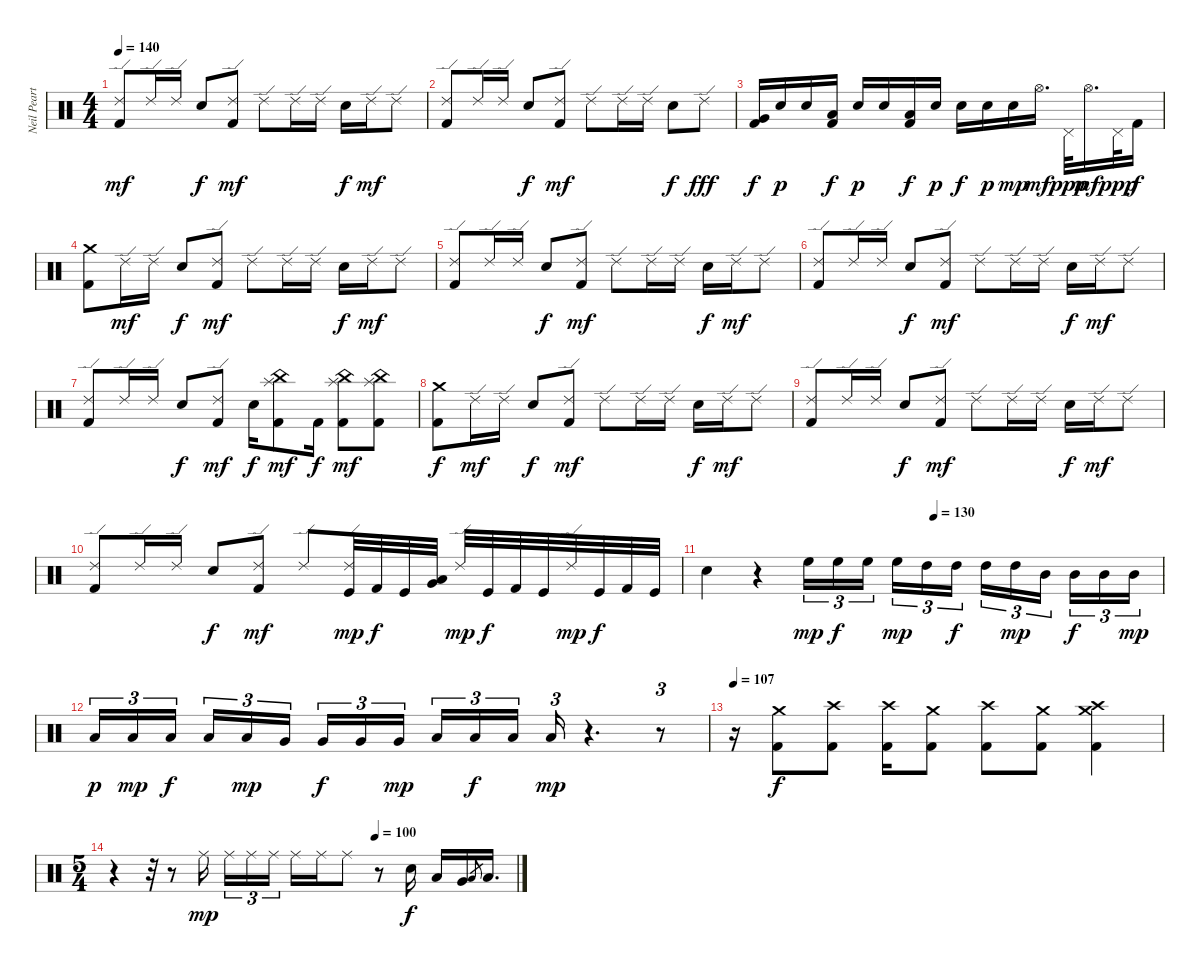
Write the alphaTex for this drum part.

\track ("Neil Peart, Percusión" "Neil Peart") {instrument percussion}
\staff {score}
\articulation defaults
\ts (4 4)
\tempo 140
\clef neutral
\ks c
("Ride (edge) 2" "Kick (hit) 2").8{dy mf} "Ride (edge) 2".16 "Ride (edge) 2".16 "Electric Snare (hit)".8{dy f} ("Ride (edge) 2" "Kick (hit) 2").8{dy mf} "Ride (edge) 2".8 "Ride (edge) 2".16 "Ride (edge) 2".16 "Electric Snare (hit)".16{dy f} "Ride (edge) 2".16{dy mf} "Ride (edge) 2".8 |
("Ride (edge) 2" "Kick (hit) 2").8 "Ride (edge) 2".16 "Ride (edge) 2".16 "Electric Snare (hit)".8{dy f} ("Ride (edge) 2" "Kick (hit) 2").8{dy mf} "Ride (edge) 2".8 "Ride (edge) 2".16 "Ride (edge) 2".16 "Electric Snare (hit)".8{dy f} "Ride (edge) 2".8{dy fff} |
("Very Low Tom (hit)" "Kick (hit) 2").16{dy f} "Electric Snare (hit)".16{dy p} "Electric Snare (hit)".16 ("Low Tom (hit)" "Kick (hit) 2").16{dy f} "Electric Snare (hit)".16{dy p} "Electric Snare (hit)".16 ("Low Floor Tom (hit)" "Kick (hit) 2").16{dy f} "Electric Snare (hit)".16{dy p} "Electric Snare (hit)".16{dy f} "Electric Snare (hit)".16{dy p} "Electric Snare (hit)".16{dy mp} "Hi-Hat (open)".16{d dy mf} "Pedal Hi-Hat (hit)".32{dy ppp} "Hi-Hat (open)".16{d dy mf} "Pedal Hi-Hat (hit)".32{dy ppp} "Kick (hit) 2".16{dy f} |
("Crash medium (hit)" "Kick (hit) 2").8 "Ride (edge) 2".16{dy mf} "Ride (edge) 2".16 "Electric Snare (hit)".8{dy f} ("Ride (edge) 2" "Kick (hit) 2").8{dy mf} "Ride (edge) 2".8 "Ride (edge) 2".16 "Ride (edge) 2".16 "Electric Snare (hit)".16{dy f} "Ride (edge) 2".16{dy mf} "Ride (edge) 2".8 |
("Ride (edge) 2" "Kick (hit) 2").8 "Ride (edge) 2".16 "Ride (edge) 2".16 "Electric Snare (hit)".8{dy f} ("Ride (edge) 2" "Kick (hit) 2").8{dy mf} "Ride (edge) 2".8 "Ride (edge) 2".16 "Ride (edge) 2".16 "Electric Snare (hit)".16{dy f} "Ride (edge) 2".16{dy mf} "Ride (edge) 2".8 |
("Ride (edge) 2" "Kick (hit) 2").8 "Ride (edge) 2".16 "Ride (edge) 2".16 "Electric Snare (hit)".8{dy f} ("Ride (edge) 2" "Kick (hit) 2").8{dy mf} "Ride (edge) 2".8 "Ride (edge) 2".16 "Ride (edge) 2".16 "Electric Snare (hit)".16{dy f} "Ride (edge) 2".16{dy mf} "Ride (edge) 2".8 |
("Ride (edge) 2" "Kick (hit) 2").8 "Ride (edge) 2".16 "Ride (edge) 2".16 "Electric Snare (hit)".8{dy f} ("Ride (edge) 2" "Kick (hit) 2").8{dy mf} "Electric Snare (hit)".16{dy f} ("China (hit)" "Splash (hit)" "Kick (hit) 2").8{dy mf} "Kick (hit) 2".16{dy f} ("China (hit)" "Splash (hit)" "Kick (hit) 2").8{dy mf} ("China (hit)" "Splash (hit)" "Kick (hit) 2").8 |
("Crash medium (hit)" "Kick (hit) 2").8{dy f} "Ride (edge) 2".16{dy mf} "Ride (edge) 2".16 "Electric Snare (hit)".8{dy f} ("Ride (edge) 2" "Kick (hit) 2").8{dy mf} "Ride (edge) 2".8 "Ride (edge) 2".16 "Ride (edge) 2".16 "Electric Snare (hit)".16{dy f} "Ride (edge) 2".16{dy mf} "Ride (edge) 2".8 |
("Ride (edge) 2" "Kick (hit) 2").8 "Ride (edge) 2".16 "Ride (edge) 2".16 "Electric Snare (hit)".8{dy f} ("Ride (edge) 2" "Kick (hit) 2").8{dy mf} "Ride (edge) 2".8 "Ride (edge) 2".16 "Ride (edge) 2".16 "Electric Snare (hit)".16{dy f} "Ride (edge) 2".16{dy mf} "Ride (edge) 2".8 |
("Ride (edge) 2" "Kick (hit) 2").8 "Ride (edge) 2".16 "Ride (edge) 2".16 "Electric Snare (hit)".8{dy f} ("Ride (edge) 2" "Kick (hit) 2").8{dy mf} "Ride (edge) 2".8 ("Ride (edge) 2" "Kick (hit)").32{dy mp} "Kick (hit) 2".32{dy f} "Kick (hit)".32 ("Very Low Tom (hit)" "Low Floor Tom (hit)").32 "Ride (edge) 2".32{dy mp} "Kick (hit)".32{dy f} "Kick (hit) 2".32 "Kick (hit)".32 "Ride (edge) 2".32{dy mp} "Kick (hit)".32{dy f} "Kick (hit) 2".32 "Kick (hit)".32 |
\tempo (130 0.5)
"Electric Snare (hit)".4 r.4 "High Floor Tom (hit)".16{tu (3 2) dy mp} "High Floor Tom (hit)".16{tu (3 2) dy f} "High Floor Tom (hit)".16{tu (3 2)} "High Floor Tom (hit)".16{tu (3 2) dy mp} "High Tom (hit)".16{tu (3 2)} "High Tom (hit)".16{tu (3 2) dy f} "High Tom (hit)".16{tu (3 2)} "High Tom (hit)".16{tu (3 2) dy mp} "Mid Tom (hit)".16{tu (3 2)} "Mid Tom (hit)".16{tu (3 2) dy f} "Mid Tom (hit)".16{tu (3 2)} "Mid Tom (hit)".16{tu (3 2) dy mp} |
"Low Tom (hit)".16{tu (3 2) dy p} "Low Tom (hit)".16{tu (3 2) dy mp} "Low Tom (hit)".16{tu (3 2) dy f} "Low Tom (hit)".16{tu (3 2)} "Low Tom (hit)".16{tu (3 2) dy mp} "Very Low Tom (hit)".16{tu (3 2)} "Very Low Tom (hit)".16{tu (3 2) dy f} "Very Low Tom (hit)".16{tu (3 2)} "Very Low Tom (hit)".16{tu (3 2) dy mp} "Low Floor Tom (hit)".16{tu (3 2)} "Low Floor Tom (hit)".16{tu (3 2) dy f} "Low Floor Tom (hit)".16{tu (3 2)} "Low Floor Tom (hit)".16{tu (3 2) dy mp} r.4{d} r.8{tu (3 2)} |
\tempo 107
r.16 ("Crash medium (hit)" "Kick (hit) 2").8{dy f} ("Crash high (hit)" "Kick (hit) 2").8 ("Crash high (hit)" "Kick (hit) 2").16 ("Crash medium (hit)" "Kick (hit) 2").8 ("Crash high (hit)" "Kick (hit) 2").8 ("Crash medium (hit)" "Kick (hit) 2").8 ("Crash medium (hit)" "Crash high (hit)" "Kick (hit) 2").4 |
\ts (5 4)
\tempo (100 0.65)
r.4 r.32 r.8 "Ride (middle)".16{dy mp} "Ride (middle)".16{tu (3 2)} "Ride (middle)".16{tu (3 2)} "Ride (middle)".16{tu (3 2)} "Ride (middle)".16 "Ride (middle)".16 "Ride (middle)".8 r.8 "Electric Snare (hit)".16{dy f} "Low Tom (hit)".16 "Very Low Tom (hit)".16 "Low Floor Tom (hit)".8{gr} "Low Floor Tom (hit)".16{d}
